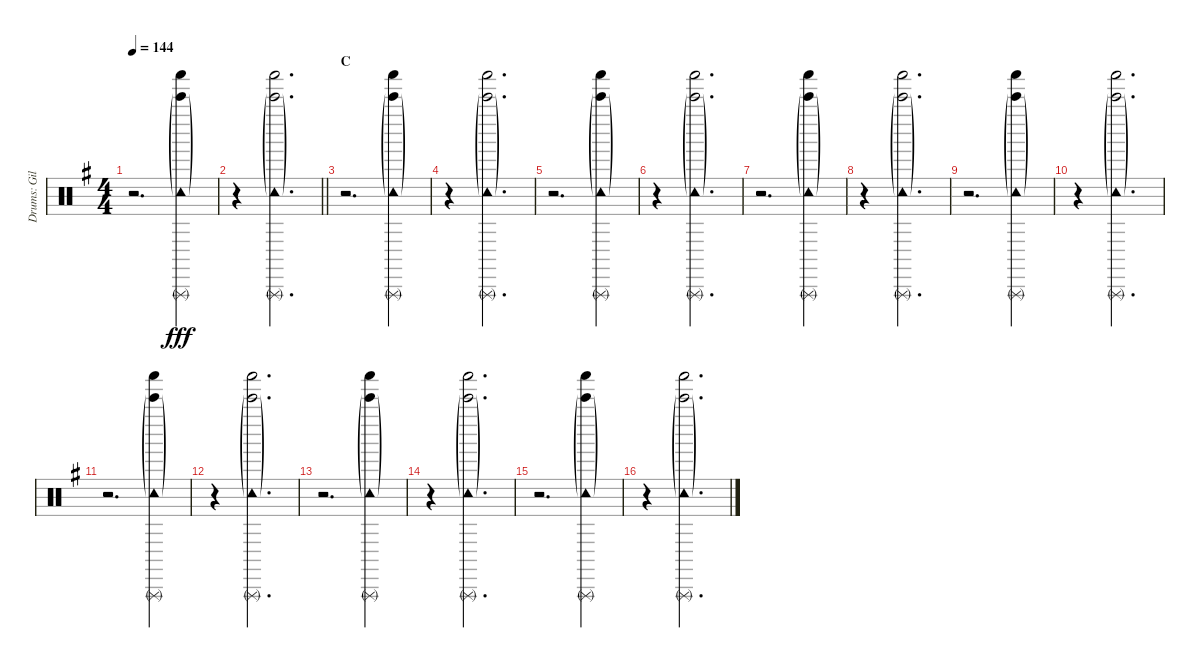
\track ("Drums: Gil" "Drums: Gil") {instrument percussion}
\staff {score}
\articulation defaults
\ts (4 4)
\tempo 144
\clef neutral
\ks g
r.2{d dy fff} ("Bell Tree (hit)"{g} "Triangle (rnute)" "Shaker (hit)" "Tambourine (hit)"{g}).4 |
\barLineRight lightlight
r.4 ("Bell Tree (hit)"{g} "Triangle (rnute)" "Shaker (hit)" "Tambourine (hit)"{g}).2{d} |
\section ("" "C")
r.2{d} ("Bell Tree (hit)"{g} "Triangle (rnute)" "Shaker (hit)" "Tambourine (hit)"{g}).4 |
r.4 ("Bell Tree (hit)"{g} "Triangle (rnute)" "Shaker (hit)" "Tambourine (hit)"{g}).2{d} |
r.2{d} ("Bell Tree (hit)"{g} "Triangle (rnute)" "Shaker (hit)" "Tambourine (hit)"{g}).4 |
r.4 ("Bell Tree (hit)"{g} "Triangle (rnute)" "Shaker (hit)" "Tambourine (hit)"{g}).2{d} |
r.2{d} ("Bell Tree (hit)"{g} "Triangle (rnute)" "Shaker (hit)" "Tambourine (hit)"{g}).4 |
r.4 ("Bell Tree (hit)"{g} "Triangle (rnute)" "Shaker (hit)" "Tambourine (hit)"{g}).2{d} |
r.2{d} ("Bell Tree (hit)"{g} "Triangle (rnute)" "Shaker (hit)" "Tambourine (hit)"{g}).4 |
r.4 ("Bell Tree (hit)"{g} "Triangle (rnute)" "Shaker (hit)" "Tambourine (hit)"{g}).2{d} |
r.2{d} ("Bell Tree (hit)"{g} "Triangle (rnute)" "Shaker (hit)" "Tambourine (hit)"{g}).4 |
r.4 ("Bell Tree (hit)"{g} "Triangle (rnute)" "Shaker (hit)" "Tambourine (hit)"{g}).2{d} |
r.2{d} ("Bell Tree (hit)"{g} "Triangle (rnute)" "Shaker (hit)" "Tambourine (hit)"{g}).4 |
r.4 ("Bell Tree (hit)"{g} "Triangle (rnute)" "Shaker (hit)" "Tambourine (hit)"{g}).2{d} |
r.2{d} ("Bell Tree (hit)"{g} "Triangle (rnute)" "Shaker (hit)" "Tambourine (hit)"{g}).4 |
r.4 ("Bell Tree (hit)"{g} "Triangle (rnute)" "Shaker (hit)" "Tambourine (hit)"{g}).2{d}
